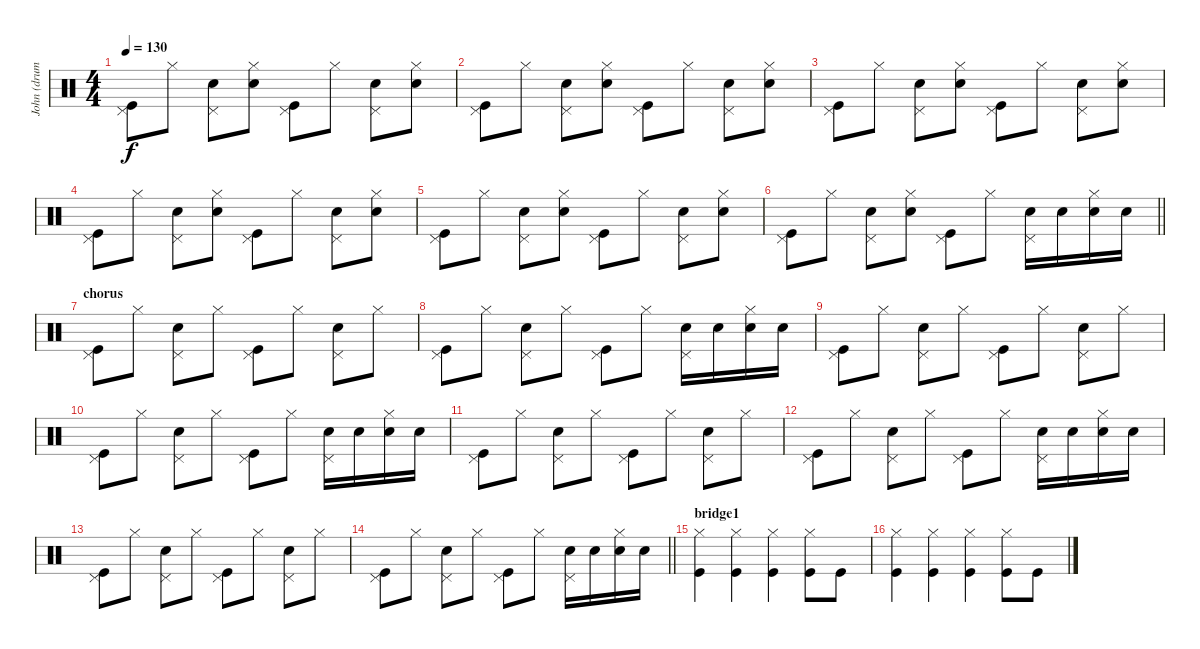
\track ("John (drums)" "John (drum") {instrument percussion}
\staff {score}
\articulation defaults
\ts (4 4)
\tempo 130
\clef neutral
\ks c
("Pedal Hi-Hat (hit)" "Kick (hit)").8{dy f} "Hi-Hat (closed)".8 ("Pedal Hi-Hat (hit)" "Electric Snare (hit)").8 ("Hi-Hat (closed)" "Electric Snare (hit)").8 ("Pedal Hi-Hat (hit)" "Kick (hit)").8 "Hi-Hat (closed)".8 ("Pedal Hi-Hat (hit)" "Electric Snare (hit)").8 ("Hi-Hat (closed)" "Electric Snare (hit)").8 |
("Pedal Hi-Hat (hit)" "Kick (hit)").8 "Hi-Hat (closed)".8 ("Pedal Hi-Hat (hit)" "Electric Snare (hit)").8 ("Hi-Hat (closed)" "Electric Snare (hit)").8 ("Pedal Hi-Hat (hit)" "Kick (hit)").8 "Hi-Hat (closed)".8 ("Pedal Hi-Hat (hit)" "Electric Snare (hit)").8 ("Hi-Hat (closed)" "Electric Snare (hit)").8 |
("Pedal Hi-Hat (hit)" "Kick (hit)").8 "Hi-Hat (closed)".8 ("Pedal Hi-Hat (hit)" "Electric Snare (hit)").8 ("Hi-Hat (closed)" "Electric Snare (hit)").8 ("Pedal Hi-Hat (hit)" "Kick (hit)").8 "Hi-Hat (closed)".8 ("Pedal Hi-Hat (hit)" "Electric Snare (hit)").8 ("Hi-Hat (closed)" "Electric Snare (hit)").8 |
("Pedal Hi-Hat (hit)" "Kick (hit)").8 "Hi-Hat (closed)".8 ("Pedal Hi-Hat (hit)" "Electric Snare (hit)").8 ("Hi-Hat (closed)" "Electric Snare (hit)").8 ("Pedal Hi-Hat (hit)" "Kick (hit)").8 "Hi-Hat (closed)".8 ("Pedal Hi-Hat (hit)" "Electric Snare (hit)").8 ("Hi-Hat (closed)" "Electric Snare (hit)").8 |
("Pedal Hi-Hat (hit)" "Kick (hit)").8 "Hi-Hat (closed)".8 ("Pedal Hi-Hat (hit)" "Electric Snare (hit)").8 ("Hi-Hat (closed)" "Electric Snare (hit)").8 ("Pedal Hi-Hat (hit)" "Kick (hit)").8 "Hi-Hat (closed)".8 ("Pedal Hi-Hat (hit)" "Electric Snare (hit)").8 ("Hi-Hat (closed)" "Electric Snare (hit)").8 |
\barLineRight lightlight
("Pedal Hi-Hat (hit)" "Kick (hit)").8 "Hi-Hat (closed)".8 ("Pedal Hi-Hat (hit)" "Electric Snare (hit)").8 ("Hi-Hat (closed)" "Electric Snare (hit)").8 ("Pedal Hi-Hat (hit)" "Kick (hit)").8 "Hi-Hat (closed)".8 ("Pedal Hi-Hat (hit)" "Electric Snare (hit)").16 "Electric Snare (hit)".16 ("Hi-Hat (closed)" "Electric Snare (hit)").16 "Electric Snare (hit)".16 |
\section ("" "chorus")
("Pedal Hi-Hat (hit)" "Kick (hit)").8 "Hi-Hat (closed)".8 ("Pedal Hi-Hat (hit)" "Electric Snare (hit)").8 "Hi-Hat (closed)".8 ("Pedal Hi-Hat (hit)" "Kick (hit)").8 "Hi-Hat (closed)".8 ("Pedal Hi-Hat (hit)" "Electric Snare (hit)").8 "Hi-Hat (closed)".8 |
("Pedal Hi-Hat (hit)" "Kick (hit)").8 "Hi-Hat (closed)".8 ("Pedal Hi-Hat (hit)" "Electric Snare (hit)").8 "Hi-Hat (closed)".8 ("Pedal Hi-Hat (hit)" "Kick (hit)").8 "Hi-Hat (closed)".8 ("Pedal Hi-Hat (hit)" "Electric Snare (hit)").16 "Electric Snare (hit)".16 ("Hi-Hat (closed)" "Electric Snare (hit)").16 "Electric Snare (hit)".16 |
("Pedal Hi-Hat (hit)" "Kick (hit)").8 "Hi-Hat (closed)".8 ("Pedal Hi-Hat (hit)" "Electric Snare (hit)").8 "Hi-Hat (closed)".8 ("Pedal Hi-Hat (hit)" "Kick (hit)").8 "Hi-Hat (closed)".8 ("Pedal Hi-Hat (hit)" "Electric Snare (hit)").8 "Hi-Hat (closed)".8 |
("Pedal Hi-Hat (hit)" "Kick (hit)").8 "Hi-Hat (closed)".8 ("Pedal Hi-Hat (hit)" "Electric Snare (hit)").8 "Hi-Hat (closed)".8 ("Pedal Hi-Hat (hit)" "Kick (hit)").8 "Hi-Hat (closed)".8 ("Pedal Hi-Hat (hit)" "Electric Snare (hit)").16 "Electric Snare (hit)".16 ("Hi-Hat (closed)" "Electric Snare (hit)").16 "Electric Snare (hit)".16 |
("Pedal Hi-Hat (hit)" "Kick (hit)").8 "Hi-Hat (closed)".8 ("Pedal Hi-Hat (hit)" "Electric Snare (hit)").8 "Hi-Hat (closed)".8 ("Pedal Hi-Hat (hit)" "Kick (hit)").8 "Hi-Hat (closed)".8 ("Pedal Hi-Hat (hit)" "Electric Snare (hit)").8 "Hi-Hat (closed)".8 |
("Pedal Hi-Hat (hit)" "Kick (hit)").8 "Hi-Hat (closed)".8 ("Pedal Hi-Hat (hit)" "Electric Snare (hit)").8 "Hi-Hat (closed)".8 ("Pedal Hi-Hat (hit)" "Kick (hit)").8 "Hi-Hat (closed)".8 ("Pedal Hi-Hat (hit)" "Electric Snare (hit)").16 "Electric Snare (hit)".16 ("Hi-Hat (closed)" "Electric Snare (hit)").16 "Electric Snare (hit)".16 |
("Pedal Hi-Hat (hit)" "Kick (hit)").8 "Hi-Hat (closed)".8 ("Pedal Hi-Hat (hit)" "Electric Snare (hit)").8 "Hi-Hat (closed)".8 ("Pedal Hi-Hat (hit)" "Kick (hit)").8 "Hi-Hat (closed)".8 ("Pedal Hi-Hat (hit)" "Electric Snare (hit)").8 "Hi-Hat (closed)".8 |
\barLineRight lightlight
("Pedal Hi-Hat (hit)" "Kick (hit)").8 "Hi-Hat (closed)".8 ("Pedal Hi-Hat (hit)" "Electric Snare (hit)").8 "Hi-Hat (closed)".8 ("Pedal Hi-Hat (hit)" "Kick (hit)").8 "Hi-Hat (closed)".8 ("Pedal Hi-Hat (hit)" "Electric Snare (hit)").16 "Electric Snare (hit)".16 ("Hi-Hat (closed)" "Electric Snare (hit)").16 "Electric Snare (hit)".16 |
\section ("" "bridge1")
("Hi-Hat (closed)" "Kick (hit)").4 ("Hi-Hat (closed)" "Kick (hit)").4 ("Hi-Hat (closed)" "Kick (hit)").4 ("Hi-Hat (closed)" "Kick (hit)").8 "Kick (hit)".8 |
("Hi-Hat (closed)" "Kick (hit)").4 ("Hi-Hat (closed)" "Kick (hit)").4 ("Hi-Hat (closed)" "Kick (hit)").4 ("Hi-Hat (closed)" "Kick (hit)").8 "Kick (hit)".8
